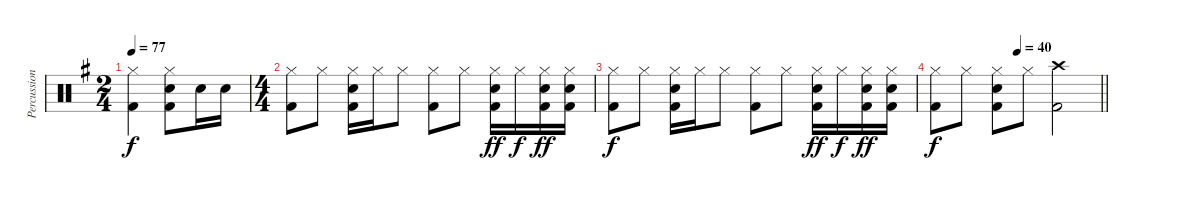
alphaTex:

\track ("Percussion" "Percussion") {instrument percussion}
\staff {score}
\articulation defaults
\ts (2 4)
\tempo 77
\clef neutral
\ks g
("Hi-Hat (closed)" "Kick (hit) 2").4{dy f} ("Hi-Hat (closed)" "Kick (hit) 2" "Snare (hit) 2").8 "Snare (hit) 2".16 "Snare (hit) 2".16 |
\ts (4 4)
("Hi-Hat (closed)" "Kick (hit) 2").8 "Hi-Hat (closed)".8 ("Hi-Hat (closed)" "Snare (hit) 2" "Kick (hit) 2").16 "Hi-Hat (closed)".16 "Hi-Hat (closed)".8 ("Hi-Hat (closed)" "Kick (hit) 2").8 "Hi-Hat (closed)".8 ("Hi-Hat (closed)" "Snare (hit) 2" "Kick (hit) 2").16{dy ff} "Hi-Hat (closed)".16{dy f} ("Hi-Hat (closed)" "Snare (hit) 2" "Kick (hit) 2").16{dy ff} ("Hi-Hat (closed)" "Snare (hit) 2" "Kick (hit) 2").16 |
("Hi-Hat (closed)" "Kick (hit) 2").8{dy f} "Hi-Hat (closed)".8 ("Hi-Hat (closed)" "Snare (hit) 2" "Kick (hit) 2").16 "Hi-Hat (closed)".16 "Hi-Hat (closed)".8 ("Hi-Hat (closed)" "Kick (hit) 2").8 "Hi-Hat (closed)".8 ("Hi-Hat (closed)" "Snare (hit) 2" "Kick (hit) 2").16{dy ff} "Hi-Hat (closed)".16{dy f} ("Hi-Hat (closed)" "Snare (hit) 2" "Kick (hit) 2").16{dy ff} ("Hi-Hat (closed)" "Snare (hit) 2" "Kick (hit) 2").16 |
\tempo (40 0.5)
\barLineRight lightlight
("Hi-Hat (closed)" "Kick (hit) 2").8{dy f} "Hi-Hat (closed)".8 ("Hi-Hat (closed)" "Kick (hit) 2" "Snare (hit) 2").8 "Hi-Hat (closed)".8 ("Crash high (hit)" "Kick (hit) 2").2
